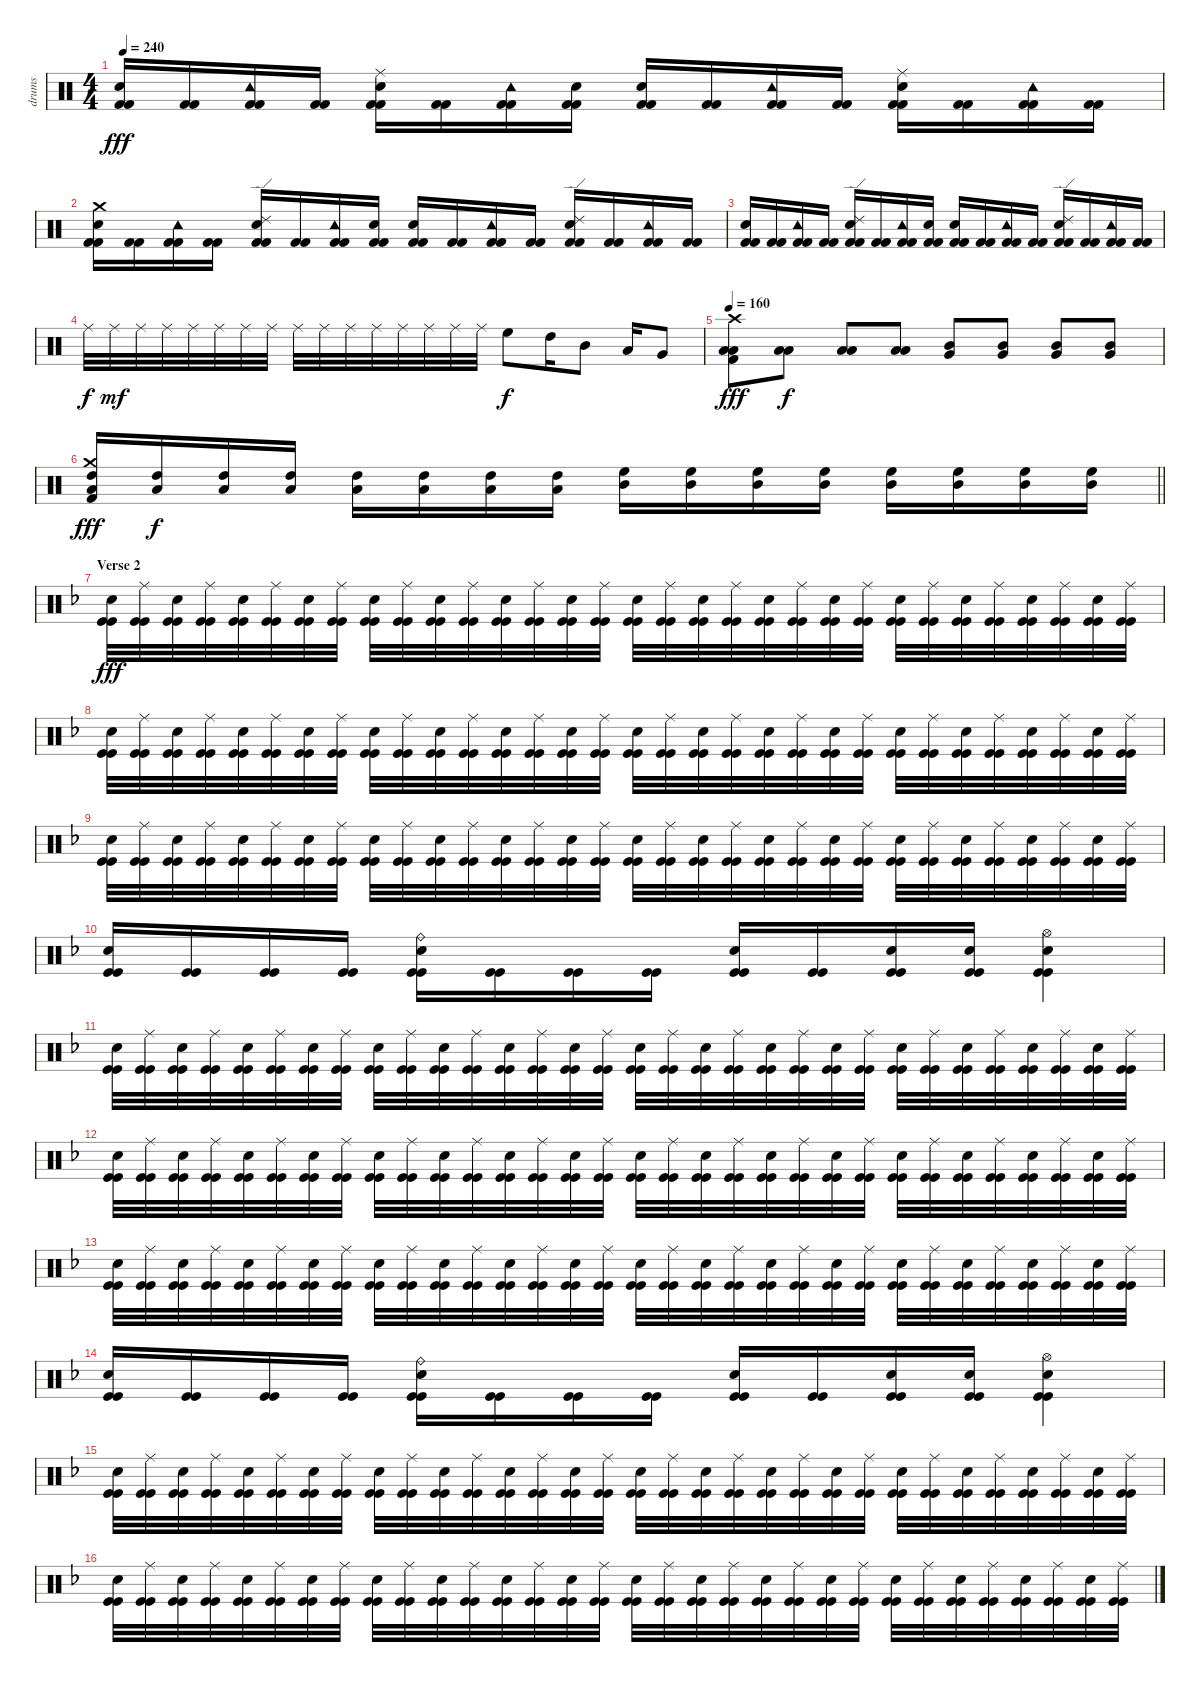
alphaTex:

\track ("drums" "drums") {instrument percussion}
\staff {score}
\articulation defaults
\ts (4 4)
\tempo 240
\clef neutral
\ks c
("Electric Snare (hit)" "Kick (hit) 2" "Kick (hit) 2").16{dy fff} ("Kick (hit) 2" "Kick (hit) 2").16 ("Tambourine (hit)" "Kick (hit) 2" "Kick (hit) 2").16 ("Kick (hit) 2" "Kick (hit) 2").16 ("Ride (middle)" "Electric Snare (hit)" "Kick (hit) 2" "Kick (hit) 2").16 ("Kick (hit) 2" "Kick (hit) 2").16 ("Tambourine (hit)" "Kick (hit) 2" "Kick (hit) 2").16 ("Snare (hit) 2" "Kick (hit) 2" "Kick (hit) 2").16 ("Electric Snare (hit)" "Kick (hit) 2" "Kick (hit) 2").16 ("Kick (hit) 2" "Kick (hit) 2").16 ("Tambourine (hit)" "Kick (hit) 2" "Kick (hit) 2").16 ("Kick (hit) 2" "Kick (hit) 2").16 ("Ride (middle)" "Electric Snare (hit)" "Kick (hit) 2" "Kick (hit) 2").16 ("Kick (hit) 2" "Kick (hit) 2").16 ("Tambourine (hit)" "Kick (hit) 2" "Kick (hit) 2").16 ("Kick (hit) 2" "Kick (hit) 2").16 |
("Crash medium (hit)" "Electric Snare (hit)" "Kick (hit) 2" "Kick (hit) 2").16 ("Kick (hit) 2" "Kick (hit) 2").16 ("Tambourine (hit)" "Kick (hit) 2" "Kick (hit) 2").16 ("Kick (hit) 2" "Kick (hit) 2").16 ("Ride (edge) 2" "Electric Snare (hit)" "Kick (hit) 2" "Kick (hit) 2").16 ("Kick (hit) 2" "Kick (hit) 2").16 ("Tambourine (hit)" "Kick (hit) 2" "Kick (hit) 2").16 ("Snare (hit) 2" "Kick (hit) 2" "Kick (hit) 2").16 ("Electric Snare (hit)" "Kick (hit) 2" "Kick (hit) 2").16 ("Kick (hit) 2" "Kick (hit) 2").16 ("Tambourine (hit)" "Kick (hit) 2" "Kick (hit) 2").16 ("Kick (hit) 2" "Kick (hit) 2").16 ("Ride (edge) 2" "Electric Snare (hit)" "Kick (hit) 2" "Kick (hit) 2").16 ("Kick (hit) 2" "Kick (hit) 2").16 ("Tambourine (hit)" "Kick (hit) 2" "Kick (hit) 2").16 ("Kick (hit) 2" "Kick (hit) 2").16 |
("Electric Snare (hit)" "Kick (hit) 2" "Kick (hit) 2").16 ("Kick (hit) 2" "Kick (hit) 2").16 ("Tambourine (hit)" "Kick (hit) 2" "Kick (hit) 2").16 ("Kick (hit) 2" "Kick (hit) 2").16 ("Ride (edge) 2" "Electric Snare (hit)" "Kick (hit) 2" "Kick (hit) 2").16 ("Kick (hit) 2" "Kick (hit) 2").16 ("Tambourine (hit)" "Kick (hit) 2" "Kick (hit) 2").16 ("Snare (hit) 2" "Kick (hit) 2" "Kick (hit) 2").16 ("Electric Snare (hit)" "Kick (hit) 2" "Kick (hit) 2").16 ("Kick (hit) 2" "Kick (hit) 2").16 ("Tambourine (hit)" "Kick (hit) 2" "Kick (hit) 2").16 ("Kick (hit) 2" "Kick (hit) 2").16 ("Ride (edge) 2" "Electric Snare (hit)" "Kick (hit) 2" "Kick (hit) 2").16 ("Kick (hit) 2" "Kick (hit) 2").16 ("Tambourine (hit)" "Kick (hit) 2" "Kick (hit) 2").16 ("Kick (hit) 2" "Kick (hit) 2").16 |
"Ride (middle)".32{dy f} "Ride (middle)".32{dy mf} "Ride (middle)".32 "Ride (middle)".32 "Ride (middle)".32 "Ride (middle)".32 "Ride (middle)".32 "Ride (middle)".32 "Ride (middle)".32 "Ride (middle)".32 "Ride (middle)".32 "Ride (middle)".32 "Ride (middle)".32 "Ride (middle)".32 "Ride (middle)".32 "Ride (middle)".32 "High Floor Tom (hit)".8{dy f} "High Tom (hit)".16 "Mid Tom (hit)".8 "Low Tom (hit)".16 "Very Low Tom (hit)".8 |
\tempo 160
("Kick (hit) 2" "Low Tom (hit)" "Low Floor Tom (hit)" "Crash high (hit)").8{dy fff} ("Low Tom (hit)" "Low Floor Tom (hit)").8{dy f} ("Low Tom (hit)" "Low Floor Tom (hit)").8 ("Low Tom (hit)" "Low Floor Tom (hit)").8 ("Mid Tom (hit)" "Very Low Tom (hit)").8 ("Mid Tom (hit)" "Very Low Tom (hit)").8 ("Mid Tom (hit)" "Very Low Tom (hit)").8 ("Mid Tom (hit)" "Very Low Tom (hit)").8 |
\barLineRight lightlight
("Kick (hit) 2" "High Tom (hit)" "Low Tom (hit)" "Crash medium (hit)").16{dy fff} ("High Tom (hit)" "Low Tom (hit)").16{dy f} ("High Tom (hit)" "Low Tom (hit)").16 ("High Tom (hit)" "Low Tom (hit)").16 ("High Tom (hit)" "Low Tom (hit)").16 ("High Tom (hit)" "Low Tom (hit)").16 ("High Tom (hit)" "Low Tom (hit)").16 ("High Tom (hit)" "Low Tom (hit)").16 ("High Floor Tom (hit)" "Mid Tom (hit)").16 ("High Floor Tom (hit)" "Mid Tom (hit)").16 ("High Floor Tom (hit)" "Mid Tom (hit)").16 ("High Floor Tom (hit)" "Mid Tom (hit)").16 ("High Floor Tom (hit)" "Mid Tom (hit)").16 ("High Floor Tom (hit)" "Mid Tom (hit)").16 ("High Floor Tom (hit)" "Mid Tom (hit)").16 ("High Floor Tom (hit)" "Mid Tom (hit)").16 |
\section ("" "Verse 2")
\ks dminor
("Kick (hit)" "Kick (hit)" "Electric Snare (hit)").32{dy fff} ("Kick (hit)" "Kick (hit)" "Ride (middle)").32 ("Kick (hit)" "Kick (hit)" "Electric Snare (hit)").32 ("Kick (hit)" "Kick (hit)" "Ride (middle)").32 ("Kick (hit)" "Kick (hit)" "Electric Snare (hit)").32 ("Kick (hit)" "Kick (hit)" "Ride (middle)").32 ("Kick (hit)" "Kick (hit)" "Electric Snare (hit)").32 ("Kick (hit)" "Kick (hit)" "Ride (middle)").32 ("Kick (hit)" "Kick (hit)" "Electric Snare (hit)").32 ("Kick (hit)" "Kick (hit)" "Ride (middle)").32 ("Kick (hit)" "Kick (hit)" "Electric Snare (hit)").32 ("Kick (hit)" "Kick (hit)" "Ride (middle)").32 ("Kick (hit)" "Kick (hit)" "Electric Snare (hit)").32 ("Kick (hit)" "Kick (hit)" "Ride (middle)").32 ("Kick (hit)" "Kick (hit)" "Electric Snare (hit)").32 ("Kick (hit)" "Kick (hit)" "Ride (middle)").32 ("Kick (hit)" "Kick (hit)" "Electric Snare (hit)").32 ("Kick (hit)" "Kick (hit)" "Ride (middle)").32 ("Kick (hit)" "Kick (hit)" "Electric Snare (hit)").32 ("Kick (hit)" "Kick (hit)" "Ride (middle)").32 ("Kick (hit)" "Kick (hit)" "Electric Snare (hit)").32 ("Kick (hit)" "Kick (hit)" "Ride (middle)").32 ("Kick (hit)" "Kick (hit)" "Electric Snare (hit)").32 ("Kick (hit)" "Kick (hit)" "Ride (middle)").32 ("Kick (hit)" "Kick (hit)" "Electric Snare (hit)").32 ("Kick (hit)" "Kick (hit)" "Ride (middle)").32 ("Kick (hit)" "Kick (hit)" "Electric Snare (hit)").32 ("Kick (hit)" "Kick (hit)" "Ride (middle)").32 ("Kick (hit)" "Kick (hit)" "Electric Snare (hit)").32 ("Kick (hit)" "Kick (hit)" "Ride (middle)").32 ("Kick (hit)" "Kick (hit)" "Electric Snare (hit)").32 ("Kick (hit)" "Kick (hit)" "Ride (middle)").32 |
("Kick (hit)" "Kick (hit)" "Electric Snare (hit)").32 ("Kick (hit)" "Kick (hit)" "Ride (middle)").32 ("Kick (hit)" "Kick (hit)" "Electric Snare (hit)").32 ("Kick (hit)" "Kick (hit)" "Ride (middle)").32 ("Kick (hit)" "Kick (hit)" "Electric Snare (hit)").32 ("Kick (hit)" "Kick (hit)" "Ride (middle)").32 ("Kick (hit)" "Kick (hit)" "Electric Snare (hit)").32 ("Kick (hit)" "Kick (hit)" "Ride (middle)").32 ("Kick (hit)" "Kick (hit)" "Electric Snare (hit)").32 ("Kick (hit)" "Kick (hit)" "Ride (middle)").32 ("Kick (hit)" "Kick (hit)" "Electric Snare (hit)").32 ("Kick (hit)" "Kick (hit)" "Ride (middle)").32 ("Kick (hit)" "Kick (hit)" "Electric Snare (hit)").32 ("Kick (hit)" "Kick (hit)" "Ride (middle)").32 ("Kick (hit)" "Kick (hit)" "Electric Snare (hit)").32 ("Kick (hit)" "Kick (hit)" "Ride (middle)").32 ("Kick (hit)" "Kick (hit)" "Electric Snare (hit)").32 ("Kick (hit)" "Kick (hit)" "Ride (middle)").32 ("Kick (hit)" "Kick (hit)" "Electric Snare (hit)").32 ("Kick (hit)" "Kick (hit)" "Ride (middle)").32 ("Kick (hit)" "Kick (hit)" "Electric Snare (hit)").32 ("Kick (hit)" "Kick (hit)" "Ride (middle)").32 ("Kick (hit)" "Kick (hit)" "Electric Snare (hit)").32 ("Kick (hit)" "Kick (hit)" "Ride (middle)").32 ("Kick (hit)" "Kick (hit)" "Electric Snare (hit)").32 ("Kick (hit)" "Kick (hit)" "Ride (middle)").32 ("Kick (hit)" "Kick (hit)" "Electric Snare (hit)").32 ("Kick (hit)" "Kick (hit)" "Ride (middle)").32 ("Kick (hit)" "Kick (hit)" "Electric Snare (hit)").32 ("Kick (hit)" "Kick (hit)" "Ride (middle)").32 ("Kick (hit)" "Kick (hit)" "Electric Snare (hit)").32 ("Kick (hit)" "Kick (hit)" "Ride (middle)").32 |
("Kick (hit)" "Kick (hit)" "Electric Snare (hit)").32 ("Kick (hit)" "Kick (hit)" "Ride (middle)").32 ("Kick (hit)" "Kick (hit)" "Electric Snare (hit)").32 ("Kick (hit)" "Kick (hit)" "Ride (middle)").32 ("Kick (hit)" "Kick (hit)" "Electric Snare (hit)").32 ("Kick (hit)" "Kick (hit)" "Ride (middle)").32 ("Kick (hit)" "Kick (hit)" "Electric Snare (hit)").32 ("Kick (hit)" "Kick (hit)" "Ride (middle)").32 ("Kick (hit)" "Kick (hit)" "Electric Snare (hit)").32 ("Kick (hit)" "Kick (hit)" "Ride (middle)").32 ("Kick (hit)" "Kick (hit)" "Electric Snare (hit)").32 ("Kick (hit)" "Kick (hit)" "Ride (middle)").32 ("Kick (hit)" "Kick (hit)" "Electric Snare (hit)").32 ("Kick (hit)" "Kick (hit)" "Ride (middle)").32 ("Kick (hit)" "Kick (hit)" "Electric Snare (hit)").32 ("Kick (hit)" "Kick (hit)" "Ride (middle)").32 ("Kick (hit)" "Kick (hit)" "Electric Snare (hit)").32 ("Kick (hit)" "Kick (hit)" "Ride (middle)").32 ("Kick (hit)" "Kick (hit)" "Electric Snare (hit)").32 ("Kick (hit)" "Kick (hit)" "Ride (middle)").32 ("Kick (hit)" "Kick (hit)" "Electric Snare (hit)").32 ("Kick (hit)" "Kick (hit)" "Ride (middle)").32 ("Kick (hit)" "Kick (hit)" "Electric Snare (hit)").32 ("Kick (hit)" "Kick (hit)" "Ride (middle)").32 ("Kick (hit)" "Kick (hit)" "Electric Snare (hit)").32 ("Kick (hit)" "Kick (hit)" "Ride (middle)").32 ("Kick (hit)" "Kick (hit)" "Electric Snare (hit)").32 ("Kick (hit)" "Kick (hit)" "Ride (middle)").32 ("Kick (hit)" "Kick (hit)" "Electric Snare (hit)").32 ("Kick (hit)" "Kick (hit)" "Ride (middle)").32 ("Kick (hit)" "Kick (hit)" "Electric Snare (hit)").32 ("Kick (hit)" "Kick (hit)" "Ride (middle)").32 |
("Kick (hit)" "Kick (hit)" "Electric Snare (hit)").16 ("Kick (hit)" "Kick (hit)").16 ("Kick (hit)" "Kick (hit)").16 ("Kick (hit)" "Kick (hit)").16 ("Kick (hit)" "Kick (hit)" "Electric Snare (hit)" "Ride (bell)").16 ("Kick (hit)" "Kick (hit)").16 ("Kick (hit)" "Kick (hit)").16 ("Kick (hit)" "Kick (hit)").16 ("Kick (hit)" "Kick (hit)" "Electric Snare (hit)").16 ("Kick (hit)" "Kick (hit)").16 ("Kick (hit)" "Kick (hit)" "Electric Snare (hit)").16 ("Kick (hit)" "Kick (hit)" "Electric Snare (hit)").16 ("Kick (hit)" "Kick (hit)" "Electric Snare (hit)" "Hi-Hat (open)").4 |
("Kick (hit)" "Kick (hit)" "Electric Snare (hit)").32 ("Kick (hit)" "Kick (hit)" "Ride (middle)").32 ("Kick (hit)" "Kick (hit)" "Electric Snare (hit)").32 ("Kick (hit)" "Kick (hit)" "Ride (middle)").32 ("Kick (hit)" "Kick (hit)" "Electric Snare (hit)").32 ("Kick (hit)" "Kick (hit)" "Ride (middle)").32 ("Kick (hit)" "Kick (hit)" "Electric Snare (hit)").32 ("Kick (hit)" "Kick (hit)" "Ride (middle)").32 ("Kick (hit)" "Kick (hit)" "Electric Snare (hit)").32 ("Kick (hit)" "Kick (hit)" "Ride (middle)").32 ("Kick (hit)" "Kick (hit)" "Electric Snare (hit)").32 ("Kick (hit)" "Kick (hit)" "Ride (middle)").32 ("Kick (hit)" "Kick (hit)" "Electric Snare (hit)").32 ("Kick (hit)" "Kick (hit)" "Ride (middle)").32 ("Kick (hit)" "Kick (hit)" "Electric Snare (hit)").32 ("Kick (hit)" "Kick (hit)" "Ride (middle)").32 ("Kick (hit)" "Kick (hit)" "Electric Snare (hit)").32 ("Kick (hit)" "Kick (hit)" "Ride (middle)").32 ("Kick (hit)" "Kick (hit)" "Electric Snare (hit)").32 ("Kick (hit)" "Kick (hit)" "Ride (middle)").32 ("Kick (hit)" "Kick (hit)" "Electric Snare (hit)").32 ("Kick (hit)" "Kick (hit)" "Ride (middle)").32 ("Kick (hit)" "Kick (hit)" "Electric Snare (hit)").32 ("Kick (hit)" "Kick (hit)" "Ride (middle)").32 ("Kick (hit)" "Kick (hit)" "Electric Snare (hit)").32 ("Kick (hit)" "Kick (hit)" "Ride (middle)").32 ("Kick (hit)" "Kick (hit)" "Electric Snare (hit)").32 ("Kick (hit)" "Kick (hit)" "Ride (middle)").32 ("Kick (hit)" "Kick (hit)" "Electric Snare (hit)").32 ("Kick (hit)" "Kick (hit)" "Ride (middle)").32 ("Kick (hit)" "Kick (hit)" "Electric Snare (hit)").32 ("Kick (hit)" "Kick (hit)" "Ride (middle)").32 |
("Kick (hit)" "Kick (hit)" "Electric Snare (hit)").32 ("Kick (hit)" "Kick (hit)" "Ride (middle)").32 ("Kick (hit)" "Kick (hit)" "Electric Snare (hit)").32 ("Kick (hit)" "Kick (hit)" "Ride (middle)").32 ("Kick (hit)" "Kick (hit)" "Electric Snare (hit)").32 ("Kick (hit)" "Kick (hit)" "Ride (middle)").32 ("Kick (hit)" "Kick (hit)" "Electric Snare (hit)").32 ("Kick (hit)" "Kick (hit)" "Ride (middle)").32 ("Kick (hit)" "Kick (hit)" "Electric Snare (hit)").32 ("Kick (hit)" "Kick (hit)" "Ride (middle)").32 ("Kick (hit)" "Kick (hit)" "Electric Snare (hit)").32 ("Kick (hit)" "Kick (hit)" "Ride (middle)").32 ("Kick (hit)" "Kick (hit)" "Electric Snare (hit)").32 ("Kick (hit)" "Kick (hit)" "Ride (middle)").32 ("Kick (hit)" "Kick (hit)" "Electric Snare (hit)").32 ("Kick (hit)" "Kick (hit)" "Ride (middle)").32 ("Kick (hit)" "Kick (hit)" "Electric Snare (hit)").32 ("Kick (hit)" "Kick (hit)" "Ride (middle)").32 ("Kick (hit)" "Kick (hit)" "Electric Snare (hit)").32 ("Kick (hit)" "Kick (hit)" "Ride (middle)").32 ("Kick (hit)" "Kick (hit)" "Electric Snare (hit)").32 ("Kick (hit)" "Kick (hit)" "Ride (middle)").32 ("Kick (hit)" "Kick (hit)" "Electric Snare (hit)").32 ("Kick (hit)" "Kick (hit)" "Ride (middle)").32 ("Kick (hit)" "Kick (hit)" "Electric Snare (hit)").32 ("Kick (hit)" "Kick (hit)" "Ride (middle)").32 ("Kick (hit)" "Kick (hit)" "Electric Snare (hit)").32 ("Kick (hit)" "Kick (hit)" "Ride (middle)").32 ("Kick (hit)" "Kick (hit)" "Electric Snare (hit)").32 ("Kick (hit)" "Kick (hit)" "Ride (middle)").32 ("Kick (hit)" "Kick (hit)" "Electric Snare (hit)").32 ("Kick (hit)" "Kick (hit)" "Ride (middle)").32 |
("Kick (hit)" "Kick (hit)" "Electric Snare (hit)").32 ("Kick (hit)" "Kick (hit)" "Ride (middle)").32 ("Kick (hit)" "Kick (hit)" "Electric Snare (hit)").32 ("Kick (hit)" "Kick (hit)" "Ride (middle)").32 ("Kick (hit)" "Kick (hit)" "Electric Snare (hit)").32 ("Kick (hit)" "Kick (hit)" "Ride (middle)").32 ("Kick (hit)" "Kick (hit)" "Electric Snare (hit)").32 ("Kick (hit)" "Kick (hit)" "Ride (middle)").32 ("Kick (hit)" "Kick (hit)" "Electric Snare (hit)").32 ("Kick (hit)" "Kick (hit)" "Ride (middle)").32 ("Kick (hit)" "Kick (hit)" "Electric Snare (hit)").32 ("Kick (hit)" "Kick (hit)" "Ride (middle)").32 ("Kick (hit)" "Kick (hit)" "Electric Snare (hit)").32 ("Kick (hit)" "Kick (hit)" "Ride (middle)").32 ("Kick (hit)" "Kick (hit)" "Electric Snare (hit)").32 ("Kick (hit)" "Kick (hit)" "Ride (middle)").32 ("Kick (hit)" "Kick (hit)" "Electric Snare (hit)").32 ("Kick (hit)" "Kick (hit)" "Ride (middle)").32 ("Kick (hit)" "Kick (hit)" "Electric Snare (hit)").32 ("Kick (hit)" "Kick (hit)" "Ride (middle)").32 ("Kick (hit)" "Kick (hit)" "Electric Snare (hit)").32 ("Kick (hit)" "Kick (hit)" "Ride (middle)").32 ("Kick (hit)" "Kick (hit)" "Electric Snare (hit)").32 ("Kick (hit)" "Kick (hit)" "Ride (middle)").32 ("Kick (hit)" "Kick (hit)" "Electric Snare (hit)").32 ("Kick (hit)" "Kick (hit)" "Ride (middle)").32 ("Kick (hit)" "Kick (hit)" "Electric Snare (hit)").32 ("Kick (hit)" "Kick (hit)" "Ride (middle)").32 ("Kick (hit)" "Kick (hit)" "Electric Snare (hit)").32 ("Kick (hit)" "Kick (hit)" "Ride (middle)").32 ("Kick (hit)" "Kick (hit)" "Electric Snare (hit)").32 ("Kick (hit)" "Kick (hit)" "Ride (middle)").32 |
("Kick (hit)" "Kick (hit)" "Electric Snare (hit)").16 ("Kick (hit)" "Kick (hit)").16 ("Kick (hit)" "Kick (hit)").16 ("Kick (hit)" "Kick (hit)").16 ("Kick (hit)" "Kick (hit)" "Electric Snare (hit)" "Ride (bell)").16 ("Kick (hit)" "Kick (hit)").16 ("Kick (hit)" "Kick (hit)").16 ("Kick (hit)" "Kick (hit)").16 ("Kick (hit)" "Kick (hit)" "Electric Snare (hit)").16 ("Kick (hit)" "Kick (hit)").16 ("Kick (hit)" "Kick (hit)" "Electric Snare (hit)").16 ("Kick (hit)" "Kick (hit)" "Electric Snare (hit)").16 ("Kick (hit)" "Kick (hit)" "Electric Snare (hit)" "Hi-Hat (open)").4 |
("Kick (hit)" "Kick (hit)" "Electric Snare (hit)").32 ("Kick (hit)" "Kick (hit)" "Ride (middle)").32 ("Kick (hit)" "Kick (hit)" "Electric Snare (hit)").32 ("Kick (hit)" "Kick (hit)" "Ride (middle)").32 ("Kick (hit)" "Kick (hit)" "Electric Snare (hit)").32 ("Kick (hit)" "Kick (hit)" "Ride (middle)").32 ("Kick (hit)" "Kick (hit)" "Electric Snare (hit)").32 ("Kick (hit)" "Kick (hit)" "Ride (middle)").32 ("Kick (hit)" "Kick (hit)" "Electric Snare (hit)").32 ("Kick (hit)" "Kick (hit)" "Ride (middle)").32 ("Kick (hit)" "Kick (hit)" "Electric Snare (hit)").32 ("Kick (hit)" "Kick (hit)" "Ride (middle)").32 ("Kick (hit)" "Kick (hit)" "Electric Snare (hit)").32 ("Kick (hit)" "Kick (hit)" "Ride (middle)").32 ("Kick (hit)" "Kick (hit)" "Electric Snare (hit)").32 ("Kick (hit)" "Kick (hit)" "Ride (middle)").32 ("Kick (hit)" "Kick (hit)" "Electric Snare (hit)").32 ("Kick (hit)" "Kick (hit)" "Ride (middle)").32 ("Kick (hit)" "Kick (hit)" "Electric Snare (hit)").32 ("Kick (hit)" "Kick (hit)" "Ride (middle)").32 ("Kick (hit)" "Kick (hit)" "Electric Snare (hit)").32 ("Kick (hit)" "Kick (hit)" "Ride (middle)").32 ("Kick (hit)" "Kick (hit)" "Electric Snare (hit)").32 ("Kick (hit)" "Kick (hit)" "Ride (middle)").32 ("Kick (hit)" "Kick (hit)" "Electric Snare (hit)").32 ("Kick (hit)" "Kick (hit)" "Ride (middle)").32 ("Kick (hit)" "Kick (hit)" "Electric Snare (hit)").32 ("Kick (hit)" "Kick (hit)" "Ride (middle)").32 ("Kick (hit)" "Kick (hit)" "Electric Snare (hit)").32 ("Kick (hit)" "Kick (hit)" "Ride (middle)").32 ("Kick (hit)" "Kick (hit)" "Electric Snare (hit)").32 ("Kick (hit)" "Kick (hit)" "Ride (middle)").32 |
("Kick (hit)" "Kick (hit)" "Electric Snare (hit)").32 ("Kick (hit)" "Kick (hit)" "Ride (middle)").32 ("Kick (hit)" "Kick (hit)" "Electric Snare (hit)").32 ("Kick (hit)" "Kick (hit)" "Ride (middle)").32 ("Kick (hit)" "Kick (hit)" "Electric Snare (hit)").32 ("Kick (hit)" "Kick (hit)" "Ride (middle)").32 ("Kick (hit)" "Kick (hit)" "Electric Snare (hit)").32 ("Kick (hit)" "Kick (hit)" "Ride (middle)").32 ("Kick (hit)" "Kick (hit)" "Electric Snare (hit)").32 ("Kick (hit)" "Kick (hit)" "Ride (middle)").32 ("Kick (hit)" "Kick (hit)" "Electric Snare (hit)").32 ("Kick (hit)" "Kick (hit)" "Ride (middle)").32 ("Kick (hit)" "Kick (hit)" "Electric Snare (hit)").32 ("Kick (hit)" "Kick (hit)" "Ride (middle)").32 ("Kick (hit)" "Kick (hit)" "Electric Snare (hit)").32 ("Kick (hit)" "Kick (hit)" "Ride (middle)").32 ("Kick (hit)" "Kick (hit)" "Electric Snare (hit)").32 ("Kick (hit)" "Kick (hit)" "Ride (middle)").32 ("Kick (hit)" "Kick (hit)" "Electric Snare (hit)").32 ("Kick (hit)" "Kick (hit)" "Ride (middle)").32 ("Kick (hit)" "Kick (hit)" "Electric Snare (hit)").32 ("Kick (hit)" "Kick (hit)" "Ride (middle)").32 ("Kick (hit)" "Kick (hit)" "Electric Snare (hit)").32 ("Kick (hit)" "Kick (hit)" "Ride (middle)").32 ("Kick (hit)" "Kick (hit)" "Electric Snare (hit)").32 ("Kick (hit)" "Kick (hit)" "Ride (middle)").32 ("Kick (hit)" "Kick (hit)" "Electric Snare (hit)").32 ("Kick (hit)" "Kick (hit)" "Ride (middle)").32 ("Kick (hit)" "Kick (hit)" "Electric Snare (hit)").32 ("Kick (hit)" "Kick (hit)" "Ride (middle)").32 ("Kick (hit)" "Kick (hit)" "Electric Snare (hit)").32 ("Kick (hit)" "Kick (hit)" "Ride (middle)").32
